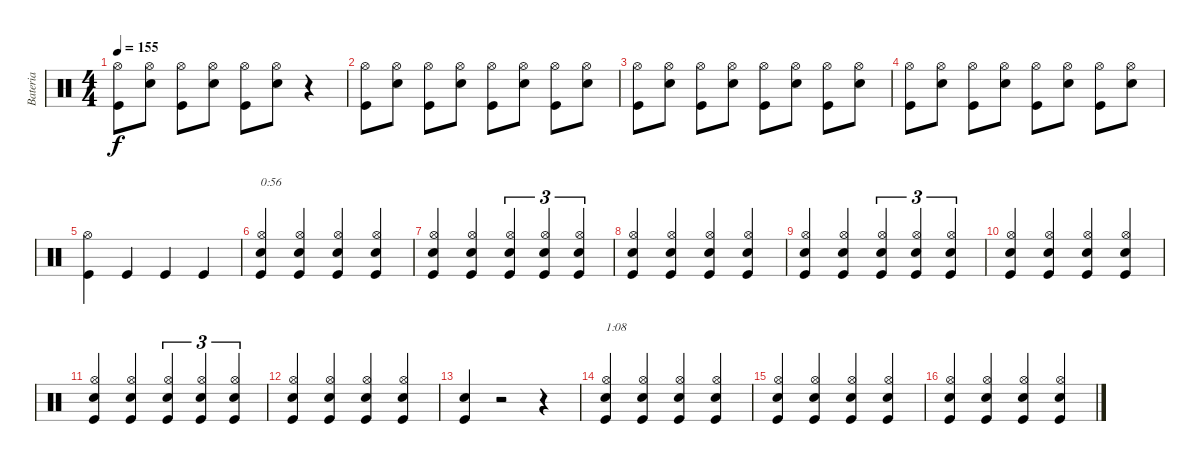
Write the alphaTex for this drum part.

\track ("Bateria" "Bateria") {instrument percussion}
\staff {score}
\articulation defaults
\ts (4 4)
\tempo 155
\clef neutral
\ks c
("Kick (hit)" "Hi-Hat (open)").8{dy f} ("Snare (hit) 2" "Hi-Hat (open)").8 ("Kick (hit)" "Hi-Hat (open)").8 ("Snare (hit) 2" "Hi-Hat (open)").8 ("Kick (hit)" "Hi-Hat (open)").8 ("Snare (hit) 2" "Hi-Hat (open)").8 r.4 |
("Kick (hit)" "Hi-Hat (open)").8 ("Snare (hit) 2" "Hi-Hat (open)").8 ("Kick (hit)" "Hi-Hat (open)").8 ("Snare (hit) 2" "Hi-Hat (open)").8 ("Kick (hit)" "Hi-Hat (open)").8 ("Snare (hit) 2" "Hi-Hat (open)").8 ("Kick (hit)" "Hi-Hat (open)").8 ("Snare (hit) 2" "Hi-Hat (open)").8 |
("Kick (hit)" "Hi-Hat (open)").8 ("Snare (hit) 2" "Hi-Hat (open)").8 ("Kick (hit)" "Hi-Hat (open)").8 ("Snare (hit) 2" "Hi-Hat (open)").8 ("Kick (hit)" "Hi-Hat (open)").8 ("Snare (hit) 2" "Hi-Hat (open)").8 ("Kick (hit)" "Hi-Hat (open)").8 ("Snare (hit) 2" "Hi-Hat (open)").8 |
("Kick (hit)" "Hi-Hat (open)").8 ("Snare (hit) 2" "Hi-Hat (open)").8 ("Kick (hit)" "Hi-Hat (open)").8 ("Snare (hit) 2" "Hi-Hat (open)").8 ("Kick (hit)" "Hi-Hat (open)").8 ("Snare (hit) 2" "Hi-Hat (open)").8 ("Kick (hit)" "Hi-Hat (open)").8 ("Snare (hit) 2" "Hi-Hat (open)").8 |
("Kick (hit)" "Hi-Hat (open)").4 "Kick (hit)".4 "Kick (hit)".4 "Kick (hit)".4 |
("Kick (hit)" "Snare (hit) 2" "Hi-Hat (open)").4{txt "0:56"} ("Kick (hit)" "Snare (hit) 2" "Hi-Hat (open)").4 ("Kick (hit)" "Snare (hit) 2" "Hi-Hat (open)").4 ("Kick (hit)" "Snare (hit) 2" "Hi-Hat (open)").4 |
("Kick (hit)" "Snare (hit) 2" "Hi-Hat (open)").4 ("Kick (hit)" "Snare (hit) 2" "Hi-Hat (open)").4 ("Kick (hit)" "Snare (hit) 2" "Hi-Hat (open)").4{tu (3 2)} ("Kick (hit)" "Snare (hit) 2" "Hi-Hat (open)").4{tu (3 2)} ("Kick (hit)" "Snare (hit) 2" "Hi-Hat (open)").4{tu (3 2)} |
("Kick (hit)" "Snare (hit) 2" "Hi-Hat (open)").4 ("Kick (hit)" "Snare (hit) 2" "Hi-Hat (open)").4 ("Kick (hit)" "Snare (hit) 2" "Hi-Hat (open)").4 ("Kick (hit)" "Snare (hit) 2" "Hi-Hat (open)").4 |
("Kick (hit)" "Snare (hit) 2" "Hi-Hat (open)").4 ("Kick (hit)" "Snare (hit) 2" "Hi-Hat (open)").4 ("Kick (hit)" "Snare (hit) 2" "Hi-Hat (open)").4{tu (3 2)} ("Kick (hit)" "Snare (hit) 2" "Hi-Hat (open)").4{tu (3 2)} ("Kick (hit)" "Snare (hit) 2" "Hi-Hat (open)").4{tu (3 2)} |
("Kick (hit)" "Snare (hit) 2" "Hi-Hat (open)").4 ("Kick (hit)" "Snare (hit) 2" "Hi-Hat (open)").4 ("Kick (hit)" "Snare (hit) 2" "Hi-Hat (open)").4 ("Kick (hit)" "Snare (hit) 2" "Hi-Hat (open)").4 |
("Kick (hit)" "Snare (hit) 2" "Hi-Hat (open)").4 ("Kick (hit)" "Snare (hit) 2" "Hi-Hat (open)").4 ("Kick (hit)" "Snare (hit) 2" "Hi-Hat (open)").4{tu (3 2)} ("Kick (hit)" "Snare (hit) 2" "Hi-Hat (open)").4{tu (3 2)} ("Kick (hit)" "Snare (hit) 2" "Hi-Hat (open)").4{tu (3 2)} |
("Kick (hit)" "Snare (hit) 2" "Hi-Hat (open)").4 ("Kick (hit)" "Snare (hit) 2" "Hi-Hat (open)").4 ("Kick (hit)" "Snare (hit) 2" "Hi-Hat (open)").4 ("Kick (hit)" "Snare (hit) 2" "Hi-Hat (open)").4 |
("Kick (hit)" "Snare (hit) 2").4 r.2 r.4 |
("Kick (hit)" "Snare (hit) 2" "Hi-Hat (open)").4{txt "1:08"} ("Kick (hit)" "Snare (hit) 2" "Hi-Hat (open)").4 ("Kick (hit)" "Snare (hit) 2" "Hi-Hat (open)").4 ("Kick (hit)" "Snare (hit) 2" "Hi-Hat (open)").4 |
("Kick (hit)" "Snare (hit) 2" "Hi-Hat (open)").4 ("Kick (hit)" "Snare (hit) 2" "Hi-Hat (open)").4 ("Kick (hit)" "Snare (hit) 2" "Hi-Hat (open)").4 ("Kick (hit)" "Snare (hit) 2" "Hi-Hat (open)").4 |
("Kick (hit)" "Snare (hit) 2" "Hi-Hat (open)").4 ("Kick (hit)" "Snare (hit) 2" "Hi-Hat (open)").4 ("Kick (hit)" "Snare (hit) 2" "Hi-Hat (open)").4 ("Kick (hit)" "Snare (hit) 2" "Hi-Hat (open)").4
